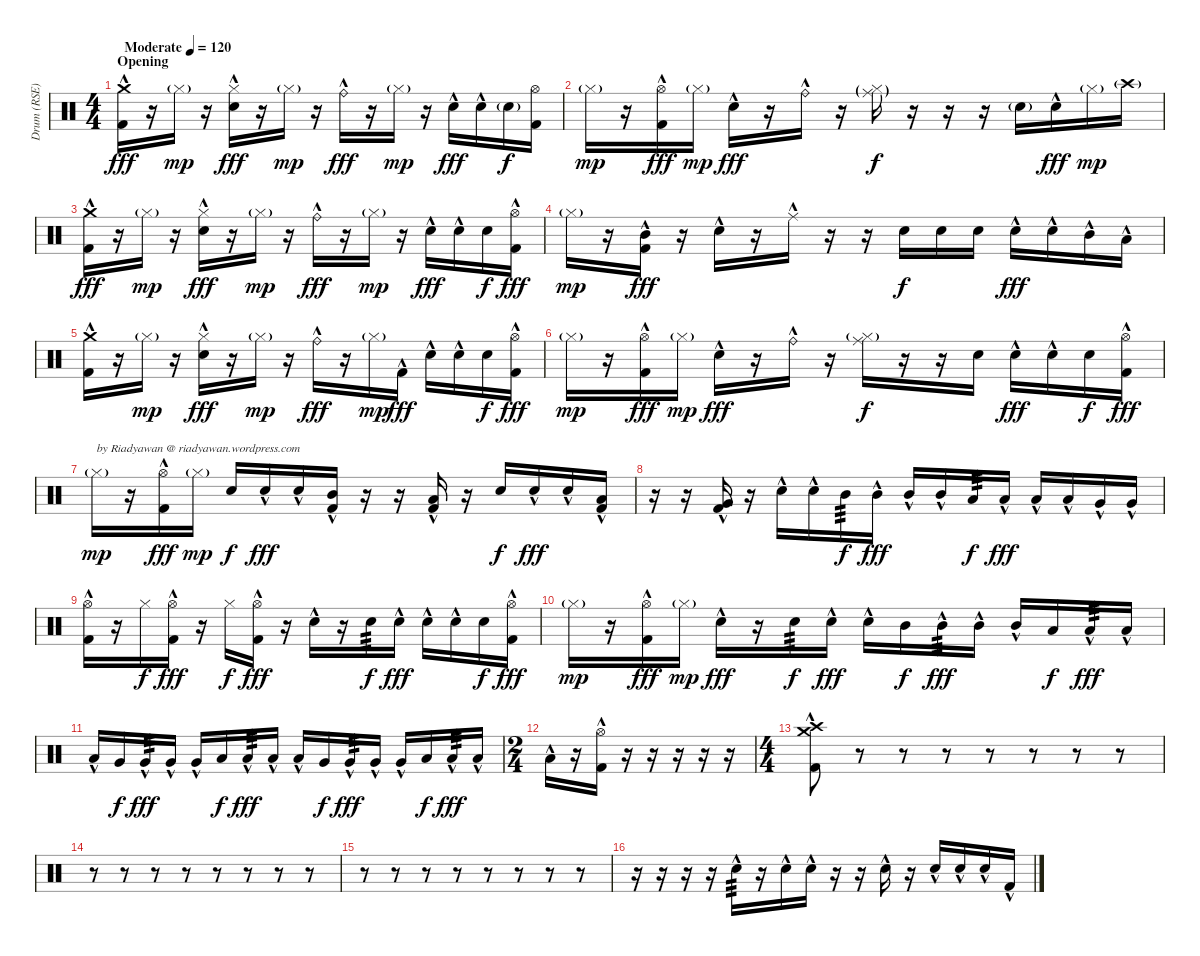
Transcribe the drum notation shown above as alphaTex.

\track ("Drum (RSE)" "Drum (RSE)") {instrument percussion}
\staff {score}
\articulation defaults
\ts (4 4)
\section ("" "Opening")
\tempo (120 "Moderate")
\clef neutral
\ks c
("Crash medium (hit)" "Kick (hit) 2"{hac}).16{dy fff} r.16 "Hi-Hat (closed)"{g}.16{dy mp} r.16 ("Hi-Hat (closed)" "Snare (hit) 2"{hac}).16{dy fff} r.16 "Hi-Hat (closed)"{g}.16{dy mp} r.16 "Ride (bell)"{hac}.16{dy fff} r.16 "Hi-Hat (closed)"{g}.16{dy mp} r.16 "Snare (hit) 2"{hac}.16{dy fff} "Snare (hit) 2"{hac}.16 "Snare (hit) 2"{g}.16{dy f} ("Hi-Hat (open)" "Kick (hit) 2").16 |
"Hi-Hat (closed)"{g}.16{dy mp} r.16 ("Hi-Hat (open)" "Kick (hit) 2"{hac}).16{dy fff} "Hi-Hat (closed)"{g}.16{dy mp} "Snare (hit) 2"{hac}.16{dy fff} r.16 "Ride (bell)"{hac}.16 r.16 ("Hi-Hat (closed)"{g} "Ride (middle)"{g}).16{dy f} r.16 r.16 r.16 "Snare (hit) 2"{g}.16 "Snare (hit) 2"{hac}.16{dy fff} "Hi-Hat (closed)"{g}.16{dy mp} "Crash high (hit)"{g}.16 |
("Crash medium (hit)" "Kick (hit) 2"{hac}).16{dy fff} r.16 "Hi-Hat (closed)"{g}.16{dy mp} r.16 ("Hi-Hat (closed)" "Snare (hit) 2"{hac}).16{dy fff} r.16 "Hi-Hat (closed)"{g}.16{dy mp} r.16 "Ride (bell)"{hac}.16{dy fff} r.16 "Hi-Hat (closed)"{g}.16{dy mp} r.16 "Snare (hit) 2"{hac}.16{dy fff} "Snare (hit) 2"{hac}.16 "Snare (hit) 2".16{dy f} ("Hi-Hat (open)" "Kick (hit) 2"{hac}).16{dy fff} |
"Hi-Hat (closed)"{g}.16{dy mp} r.16 ("Mid Tom (hit)" "Kick (hit) 2"{hac}).16{dy fff} r.16 "Snare (hit) 2"{hac}.16 r.16 "Ride (middle)"{hac}.16 r.16 r.16 "Snare (hit) 2".16{dy f} "Snare (hit) 2".16 "Snare (hit) 2".16 "Snare (hit) 2"{hac}.16{dy fff} "Snare (hit) 2"{hac}.16 "Mid Tom (hit)"{hac}.16 "Low Tom (hit)"{hac}.16 |
("Crash medium (hit)" "Kick (hit) 2"{hac}).16 r.16 "Hi-Hat (closed)"{g}.16{dy mp} r.16 ("Hi-Hat (closed)" "Snare (hit) 2"{hac}).16{dy fff} r.16 "Hi-Hat (closed)"{g}.16{dy mp} r.16 "Ride (bell)"{hac}.16{dy fff} r.16 "Hi-Hat (closed)"{g}.16{dy mp} "Kick (hit) 2"{hac}.16{dy fff} "Snare (hit) 2"{hac}.16 "Snare (hit) 2"{hac}.16 "Snare (hit) 2".16{dy f} ("Hi-Hat (open)" "Kick (hit) 2"{hac}).16{dy fff} |
"Hi-Hat (closed)"{g}.16{dy mp} r.16 ("Hi-Hat (open)" "Kick (hit) 2"{hac}).16{dy fff} "Hi-Hat (closed)"{g}.16{dy mp} "Snare (hit) 2"{hac}.16{dy fff} r.16 "Ride (bell)"{hac}.16 r.16 ("Hi-Hat (closed)"{g} "Ride (middle)").16{dy f} r.16 r.16 "Snare (hit) 2".16 "Snare (hit) 2"{hac}.16{dy fff} "Snare (hit) 2"{hac}.16 "Snare (hit) 2".16{dy f} ("Hi-Hat (open)" "Kick (hit) 2"{hac}).16{dy fff} |
"Hi-Hat (closed)"{g}.16{txt "by Riadyawan @ riadyawan.wordpress.com" dy mp} r.16 ("Hi-Hat (open)" "Kick (hit) 2"{hac}).16{dy fff} "Hi-Hat (closed)"{g}.16{dy mp} "Snare (hit) 2".16{dy f} "Snare (hit) 2"{hac}.16{dy fff} "Snare (hit) 2"{hac}.16 ("Mid Tom (hit)" "Kick (hit) 2"{hac}).16 r.16 r.16 ("Low Tom (hit)" "Kick (hit) 2"{hac}).16 r.16 "Snare (hit) 2".16{dy f} "Snare (hit) 2"{hac}.16{dy fff} "Snare (hit) 2"{hac}.16 ("Low Tom (hit)" "Kick (hit) 2"{hac}).16 |
r.16 r.16 ("Very Low Tom (hit)" "Kick (hit) 2"{hac}).16 r.16 "Snare (hit) 2"{hac}.16 "Snare (hit) 2"{hac}.16 "Mid Tom (hit)".16{tp 3 dy f} "Mid Tom (hit)"{hac}.16{dy fff} "Mid Tom (hit)"{hac}.16 "Mid Tom (hit)"{hac}.16 "Low Tom (hit)".16{tp 3 dy f} "Low Tom (hit)"{hac}.16{dy fff} "Low Tom (hit)"{hac}.16 "Low Tom (hit)"{hac}.16 "Very Low Tom (hit)"{hac}.16 "Very Low Tom (hit)"{hac}.16 |
("Hi-Hat (open)" "Kick (hit) 2"{hac}).16 r.16 "Hi-Hat (closed)".16{dy f} ("Hi-Hat (open)" "Kick (hit) 2"{hac}).16{dy fff} r.16 "Hi-Hat (closed)".16{dy f} ("Hi-Hat (open)" "Kick (hit) 2"{hac}).16{dy fff} r.16 "Snare (hit) 2"{hac}.16 r.16 "Snare (hit) 2".16{tp 3 dy f} "Snare (hit) 2"{hac}.16{dy fff} "Snare (hit) 2"{hac}.16 "Snare (hit) 2"{hac}.16 "Snare (hit) 2".16{dy f} ("Hi-Hat (open)" "Kick (hit) 2"{hac}).16{dy fff} |
"Hi-Hat (closed)"{g}.16{dy mp} r.16 ("Hi-Hat (open)" "Kick (hit) 2"{hac}).16{dy fff} "Hi-Hat (closed)"{g}.16{dy mp} "Snare (hit) 2"{hac}.16{dy fff} r.16 "Snare (hit) 2".16{tp 3 dy f} "Snare (hit) 2"{hac}.16{dy fff} "Snare (hit) 2"{hac}.16 "Mid Tom (hit)".16{dy f} "Mid Tom (hit)"{hac}.16{tp 3 dy fff} "Mid Tom (hit)"{hac}.16 "Mid Tom (hit)"{hac}.16 "Low Tom (hit)".16{dy f} "Low Tom (hit)"{hac}.16{tp 3 dy fff} "Low Tom (hit)"{hac}.16 |
"Low Tom (hit)"{hac}.16 "Very Low Tom (hit)".16{dy f} "Very Low Tom (hit)"{hac}.16{tp 3 dy fff} "Very Low Tom (hit)"{hac}.16 "Very Low Tom (hit)"{hac}.16 "Low Tom (hit)".16{dy f} "Low Tom (hit)"{hac}.16{tp 3 dy fff} "Low Tom (hit)"{hac}.16 "Low Tom (hit)"{hac}.16 "Very Low Tom (hit)".16{dy f} "Very Low Tom (hit)"{hac}.16{tp 3 dy fff} "Very Low Tom (hit)"{hac}.16 "Very Low Tom (hit)"{hac}.16 "Low Floor Tom (hit)".16{dy f} "Low Floor Tom (hit)"{hac}.16{tp 3 dy fff} "Low Floor Tom (hit)"{hac}.16 |
\ts (2 4)
"Low Floor Tom (hit)"{hac}.16 r.16 ("Hi-Hat (open)" "Kick (hit) 2"{hac}).16 r.16 r.16 r.16 r.16 r.16 |
\ts (4 4)
("Crash medium (hit)" "Crash high (hit)" "Kick (hit) 2"{hac}).8 r.8 r.8 r.8 r.8 r.8 r.8 r.8 |
r.8 r.8 r.8 r.8 r.8 r.8 r.8 r.8 |
r.8 r.8 r.8 r.8 r.8 r.8 r.8 r.8 |
r.16 r.16 r.16 r.16 "Snare (hit) 2"{hac}.16{tp 3} r.16 "Snare (hit) 2"{hac}.16 "Snare (hit) 2"{hac}.16 r.16 r.16 "Snare (hit) 2"{hac}.16 r.16 "Snare (hit) 2"{hac}.16 "Snare (hit) 2"{hac}.16 "Snare (hit) 2"{hac}.16 "Kick (hit) 2"{hac}.16
